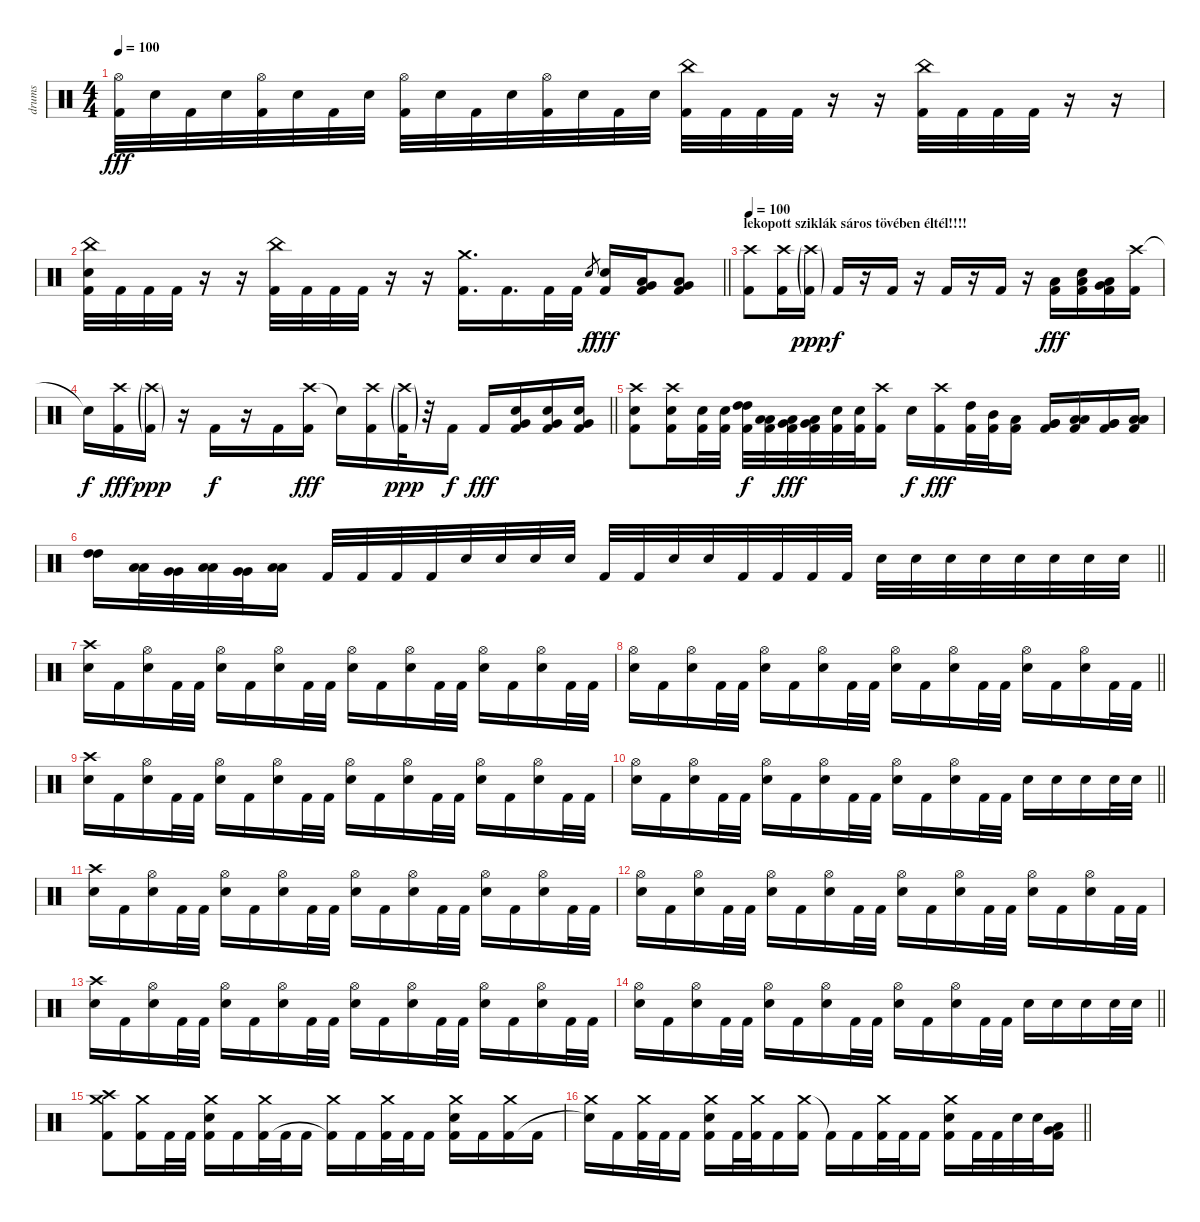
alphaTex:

\track ("drums" "drums") {instrument percussion}
\staff {score}
\articulation defaults
\ts (4 4)
\tempo 100
\clef neutral
\ks c
("Hi-Hat (open)" "Kick (hit) 2").32{dy fff} "Electric Snare (hit)".32 "Kick (hit) 2".32 "Electric Snare (hit)".32 ("Hi-Hat (open)" "Kick (hit) 2").32 "Electric Snare (hit)".32 "Kick (hit) 2".32 "Electric Snare (hit)".32 ("Hi-Hat (open)" "Kick (hit) 2").32 "Electric Snare (hit)".32 "Kick (hit) 2".32 "Electric Snare (hit)".32 ("Hi-Hat (open)" "Kick (hit) 2").32 "Electric Snare (hit)".32 "Kick (hit) 2".32 "Electric Snare (hit)".32 ("China (hit)" "Kick (hit) 2").32 "Kick (hit) 2".32 "Kick (hit) 2".32 "Kick (hit) 2".32 r.16 r.16 ("China (hit)" "Kick (hit) 2").32 "Kick (hit) 2".32 "Kick (hit) 2".32 "Kick (hit) 2".32 r.16 r.16 |
\barLineRight lightlight
("China (hit)" "Electric Snare (hit)" "Kick (hit) 2").32 "Kick (hit) 2".32 "Kick (hit) 2".32 "Kick (hit) 2".32 r.16 r.16 ("China (hit)" "Kick (hit) 2").32 "Kick (hit) 2".32 "Kick (hit) 2".32 "Kick (hit) 2".32 r.16 r.16 ("Crash medium (hit)" "Kick (hit) 2").16{d} "Kick (hit) 2".16{d} "Kick (hit) 2".32 "Kick (hit) 2".32 "Electric Snare (hit)".8{gr dy f} ("Electric Snare (hit)" "Kick (hit) 2").16{dy fff} ("Very Low Tom (hit)" "Low Tom (hit)" "Kick (hit) 2").16 ("Low Floor Tom (hit)" "Very Low Tom (hit)" "Kick (hit) 2").8 |
\section ("" "lekopott sziklák sáros tövében éltél!!!!")
\tempo 100
("Crash high (hit)" "Kick (hit) 2").8 ("Crash high (hit)" "Kick (hit) 2").16 ("Crash high (hit)"{g} "Kick (hit) 2"{g}).16{dy ppp} "Kick (hit) 2".16{dy f} r.16 "Kick (hit) 2".16 r.16 "Kick (hit) 2".16 r.16 "Kick (hit) 2".16 r.16 ("Low Floor Tom (hit)" "Kick (hit) 2").16{dy fff} ("Electric Snare (hit)" "Low Floor Tom (hit)" "Kick (hit) 2").16 ("Low Floor Tom (hit)" "Very Low Tom (hit)" "Kick (hit) 2").16 ("Crash high (hit)" "Kick (hit) 2").16 |
\barLineRight lightlight "Snare (hit)"{t}.16{dy f}
("Crash high (hit)" "Kick (hit) 2").16{dy fff} ("Crash high (hit)"{g} "Kick (hit) 2"{g}).16{dy ppp} r.16 "Kick (hit) 2".16{dy f} r.16 "Kick (hit) 2".16 ("Crash high (hit)" "Kick (hit) 2").16{dy fff} "Snare (hit)"{t}.16 ("Crash high (hit)" "Kick (hit) 2").16 ("Crash high (hit)"{g} "Kick (hit) 2"{g}).32{dy ppp} r.32 "Kick (hit) 2".16{dy f} "Kick (hit) 2".16{dy fff} ("Electric Snare (hit)" "Very Low Tom (hit)" "Kick (hit) 2").16 ("Electric Snare (hit)" "Very Low Tom (hit)" "Kick (hit) 2").16 ("Electric Snare (hit)" "Very Low Tom (hit)" "Kick (hit) 2").16 |
("Crash high (hit)" "Electric Snare (hit)" "Kick (hit) 2").8 ("Crash high (hit)" "Electric Snare (hit)" "Kick (hit) 2").16 ("Electric Snare (hit)" "Kick (hit) 2").32 ("Electric Snare (hit)" "Kick (hit) 2").32 ("High Tom (hit)" "High Tom (hit)" "Kick (hit) 2").32{dy f} ("Low Tom (hit)" "Low Tom (hit)" "Kick (hit) 2").32 ("Very Low Tom (hit)" "Low Floor Tom (hit)" "Kick (hit) 2").32{dy fff} ("Very Low Tom (hit)" "Low Floor Tom (hit)" "Kick (hit) 2").32 ("Electric Snare (hit)" "Kick (hit) 2").32 ("Electric Snare (hit)" "Kick (hit) 2").32 ("Crash high (hit)" "Kick (hit) 2").16 "Electric Snare (hit)".16{dy f} ("Crash high (hit)" "Kick (hit) 2").16{dy fff} ("High Tom (hit)" "Kick (hit) 2").32 ("Mid Tom (hit)" "Kick (hit) 2").32 ("Low Tom (hit)" "Kick (hit) 2").16 ("Very Low Tom (hit)" "Very Low Tom (hit)" "Kick (hit) 2").16 ("Low Floor Tom (hit)" "Low Floor Tom (hit)" "Kick (hit) 2").16 ("Very Low Tom (hit)" "Very Low Tom (hit)" "Kick (hit) 2").16 ("Low Floor Tom (hit)" "Low Floor Tom (hit)" "Kick (hit) 2").16 |
\barLineRight lightlight
("High Tom (hit)" "High Tom (hit)").16 ("Low Tom (hit)" "Low Tom (hit)").32 ("Very Low Tom (hit)" "Very Low Tom (hit)").32 ("Low Floor Tom (hit)" "Low Floor Tom (hit)").32 ("Very Low Tom (hit)" "Very Low Tom (hit)").32 ("Low Floor Tom (hit)" "Low Floor Tom (hit)").16 "Kick (hit) 2".32 "Kick (hit) 2".32 "Kick (hit) 2".32 "Kick (hit) 2".32 "Electric Snare (hit)".32 "Electric Snare (hit)".32 "Electric Snare (hit)".32 "Electric Snare (hit)".32 "Kick (hit) 2".32 "Kick (hit) 2".32 "Electric Snare (hit)".32 "Electric Snare (hit)".32 "Kick (hit) 2".32 "Kick (hit) 2".32 "Kick (hit) 2".32 "Kick (hit) 2".32 "Electric Snare (hit)".32 "Electric Snare (hit)".32 "Electric Snare (hit)".32 "Electric Snare (hit)".32 "Electric Snare (hit)".32 "Electric Snare (hit)".32 "Electric Snare (hit)".32 "Electric Snare (hit)".32 |
\section ("" "")
("Crash high (hit)" "Electric Snare (hit)").16 "Kick (hit) 2".16 ("Hi-Hat (open)" "Electric Snare (hit)").16 "Kick (hit) 2".32 "Kick (hit) 2".32 ("Hi-Hat (open)" "Electric Snare (hit)").16 "Kick (hit) 2".16 ("Hi-Hat (open)" "Electric Snare (hit)").16 "Kick (hit) 2".32 "Kick (hit) 2".32 ("Hi-Hat (open)" "Electric Snare (hit)").16 "Kick (hit) 2".16 ("Hi-Hat (open)" "Electric Snare (hit)").16 "Kick (hit) 2".32 "Kick (hit) 2".32 ("Hi-Hat (open)" "Electric Snare (hit)").16 "Kick (hit) 2".16 ("Hi-Hat (open)" "Electric Snare (hit)").16 "Kick (hit) 2".32 "Kick (hit) 2".32 |
\barLineRight lightlight
("Hi-Hat (open)" "Electric Snare (hit)").16 "Kick (hit) 2".16 ("Hi-Hat (open)" "Electric Snare (hit)").16 "Kick (hit) 2".32 "Kick (hit) 2".32 ("Hi-Hat (open)" "Electric Snare (hit)").16 "Kick (hit) 2".16 ("Hi-Hat (open)" "Electric Snare (hit)").16 "Kick (hit) 2".32 "Kick (hit) 2".32 ("Hi-Hat (open)" "Electric Snare (hit)").16 "Kick (hit) 2".16 ("Hi-Hat (open)" "Electric Snare (hit)").16 "Kick (hit) 2".32 "Kick (hit) 2".32 ("Hi-Hat (open)" "Electric Snare (hit)").16 "Kick (hit) 2".16 ("Hi-Hat (open)" "Electric Snare (hit)").16 "Kick (hit) 2".32 "Kick (hit) 2".32 |
("Crash high (hit)" "Electric Snare (hit)").16 "Kick (hit) 2".16 ("Hi-Hat (open)" "Electric Snare (hit)").16 "Kick (hit) 2".32 "Kick (hit) 2".32 ("Hi-Hat (open)" "Electric Snare (hit)").16 "Kick (hit) 2".16 ("Hi-Hat (open)" "Electric Snare (hit)").16 "Kick (hit) 2".32 "Kick (hit) 2".32 ("Hi-Hat (open)" "Electric Snare (hit)").16 "Kick (hit) 2".16 ("Hi-Hat (open)" "Electric Snare (hit)").16 "Kick (hit) 2".32 "Kick (hit) 2".32 ("Hi-Hat (open)" "Electric Snare (hit)").16 "Kick (hit) 2".16 ("Hi-Hat (open)" "Electric Snare (hit)").16 "Kick (hit) 2".32 "Kick (hit) 2".32 |
\barLineRight lightlight
("Hi-Hat (open)" "Electric Snare (hit)").16 "Kick (hit) 2".16 ("Hi-Hat (open)" "Electric Snare (hit)").16 "Kick (hit) 2".32 "Kick (hit) 2".32 ("Hi-Hat (open)" "Electric Snare (hit)").16 "Kick (hit) 2".16 ("Hi-Hat (open)" "Electric Snare (hit)").16 "Kick (hit) 2".32 "Kick (hit) 2".32 ("Hi-Hat (open)" "Electric Snare (hit)").16 "Kick (hit) 2".16 ("Hi-Hat (open)" "Electric Snare (hit)").16 "Kick (hit) 2".32 "Kick (hit) 2".32 "Electric Snare (hit)".16 "Electric Snare (hit)".16 "Electric Snare (hit)".16 "Electric Snare (hit)".32 "Electric Snare (hit)".32 |
("Crash high (hit)" "Electric Snare (hit)").16 "Kick (hit) 2".16 ("Hi-Hat (open)" "Electric Snare (hit)").16 "Kick (hit) 2".32 "Kick (hit) 2".32 ("Hi-Hat (open)" "Electric Snare (hit)").16 "Kick (hit) 2".16 ("Hi-Hat (open)" "Electric Snare (hit)").16 "Kick (hit) 2".32 "Kick (hit) 2".32 ("Hi-Hat (open)" "Electric Snare (hit)").16 "Kick (hit) 2".16 ("Hi-Hat (open)" "Electric Snare (hit)").16 "Kick (hit) 2".32 "Kick (hit) 2".32 ("Hi-Hat (open)" "Electric Snare (hit)").16 "Kick (hit) 2".16 ("Hi-Hat (open)" "Electric Snare (hit)").16 "Kick (hit) 2".32 "Kick (hit) 2".32 |
("Hi-Hat (open)" "Electric Snare (hit)").16 "Kick (hit) 2".16 ("Hi-Hat (open)" "Electric Snare (hit)").16 "Kick (hit) 2".32 "Kick (hit) 2".32 ("Hi-Hat (open)" "Electric Snare (hit)").16 "Kick (hit) 2".16 ("Hi-Hat (open)" "Electric Snare (hit)").16 "Kick (hit) 2".32 "Kick (hit) 2".32 ("Hi-Hat (open)" "Electric Snare (hit)").16 "Kick (hit) 2".16 ("Hi-Hat (open)" "Electric Snare (hit)").16 "Kick (hit) 2".32 "Kick (hit) 2".32 ("Hi-Hat (open)" "Electric Snare (hit)").16 "Kick (hit) 2".16 ("Hi-Hat (open)" "Electric Snare (hit)").16 "Kick (hit) 2".32 "Kick (hit) 2".32 |
("Crash high (hit)" "Electric Snare (hit)").16 "Kick (hit) 2".16 ("Hi-Hat (open)" "Electric Snare (hit)").16 "Kick (hit) 2".32 "Kick (hit) 2".32 ("Hi-Hat (open)" "Electric Snare (hit)").16 "Kick (hit) 2".16 ("Hi-Hat (open)" "Electric Snare (hit)").16 "Kick (hit) 2".32 "Kick (hit) 2".32 ("Hi-Hat (open)" "Electric Snare (hit)").16 "Kick (hit) 2".16 ("Hi-Hat (open)" "Electric Snare (hit)").16 "Kick (hit) 2".32 "Kick (hit) 2".32 ("Hi-Hat (open)" "Electric Snare (hit)").16 "Kick (hit) 2".16 ("Hi-Hat (open)" "Electric Snare (hit)").16 "Kick (hit) 2".32 "Kick (hit) 2".32 |
\barLineRight lightlight
("Hi-Hat (open)" "Electric Snare (hit)").16 "Kick (hit) 2".16 ("Hi-Hat (open)" "Electric Snare (hit)").16 "Kick (hit) 2".32 "Kick (hit) 2".32 ("Hi-Hat (open)" "Electric Snare (hit)").16 "Kick (hit) 2".16 ("Hi-Hat (open)" "Electric Snare (hit)").16 "Kick (hit) 2".32 "Kick (hit) 2".32 ("Hi-Hat (open)" "Electric Snare (hit)").16 "Kick (hit) 2".16 ("Hi-Hat (open)" "Electric Snare (hit)").16 "Kick (hit) 2".32 "Kick (hit) 2".32 "Electric Snare (hit)".16 "Electric Snare (hit)".16 "Electric Snare (hit)".16 "Electric Snare (hit)".32 "Electric Snare (hit)".32 |
\section ("" "")
("Crash high (hit)" "Crash medium (hit)" "Kick (hit) 2").8 ("Crash medium (hit)" "Kick (hit) 2").16 "Kick (hit) 2".32 "Kick (hit) 2".32 ("Crash medium (hit)" "Electric Snare (hit)" "Kick (hit) 2").16 "Kick (hit) 2".16 ("Crash medium (hit)" "Kick (hit) 2").32 "Kick (hit) 2".32 "Kick (hit) 2".16 ("Crash medium (hit)" "Kick (hit) 2"{t}).16 "Kick (hit) 2".16 ("Crash medium (hit)" "Kick (hit) 2").32 "Kick (hit) 2".32 "Kick (hit) 2".16 ("Crash medium (hit)" "Electric Snare (hit)" "Kick (hit) 2").16 "Kick (hit) 2".16 ("Crash medium (hit)" "Kick (hit) 2").16 "Kick (hit) 2".16 |
\barLineRight lightlight
("Crash medium (hit)" "Snare (hit)"{t}).16 "Kick (hit) 2".16 ("Crash medium (hit)" "Kick (hit) 2").32 "Kick (hit) 2".32 "Kick (hit) 2".16 ("Crash medium (hit)" "Electric Snare (hit)" "Kick (hit) 2").16 "Kick (hit) 2".32 ("Crash medium (hit)" "Kick (hit) 2").32 "Kick (hit) 2".16 ("Crash medium (hit)" "Kick (hit) 2").16 "Kick (hit) 2"{t}.16 "Kick (hit) 2".16 ("Crash medium (hit)" "Kick (hit) 2").32 "Kick (hit) 2".32 "Kick (hit) 2".16 ("Crash medium (hit)" "Electric Snare (hit)" "Kick (hit) 2").16 "Kick (hit) 2".32 "Kick (hit) 2".32 "Electric Snare (hit)".32 "Electric Snare (hit)".32 ("Very Low Tom (hit)" "Low Floor Tom (hit)" "Kick (hit) 2").16
